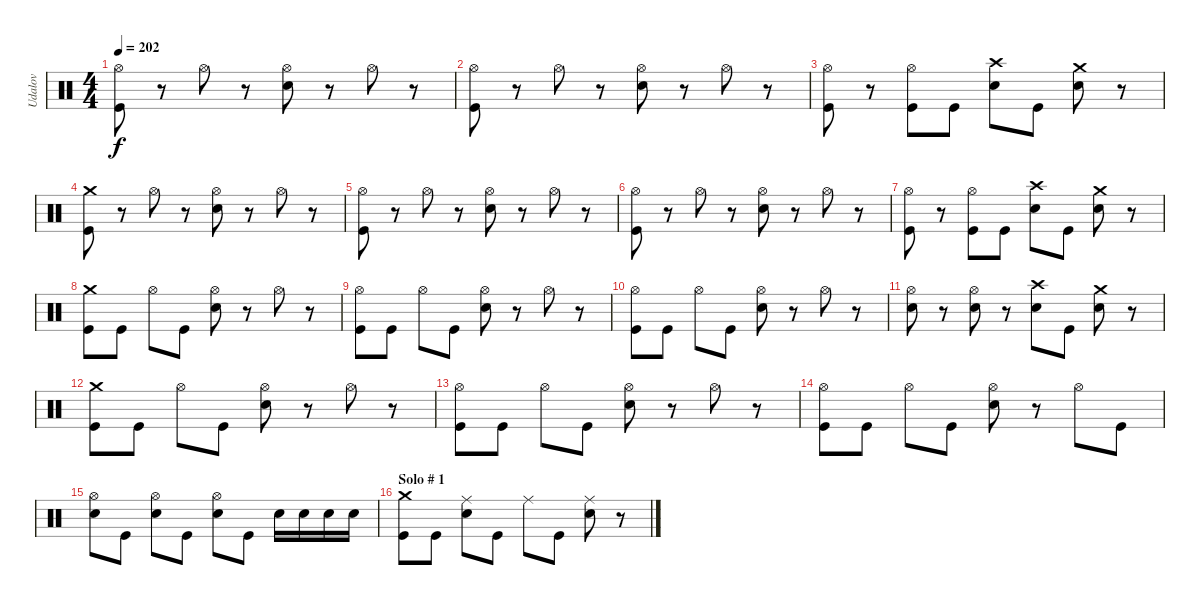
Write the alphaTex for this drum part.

\track ("Udalov" "Udalov") {instrument percussion}
\staff {score}
\articulation defaults
\ts (4 4)
\tempo 202
\clef neutral
\ks c
("Kick (hit)" "Hi-Hat (open)").8{dy f} r.8 "Hi-Hat (open)".8 r.8 ("Electric Snare (hit)" "Hi-Hat (open)").8 r.8 "Hi-Hat (open)".8 r.8 |
("Kick (hit)" "Hi-Hat (open)").8 r.8 "Hi-Hat (open)".8 r.8 ("Electric Snare (hit)" "Hi-Hat (open)").8 r.8 "Hi-Hat (open)".8 r.8 |
("Kick (hit)" "Hi-Hat (open)").8 r.8 ("Kick (hit)" "Hi-Hat (open)").8 "Kick (hit)".8 ("Electric Snare (hit)" "Crash high (hit)").8 "Kick (hit)".8 ("Electric Snare (hit)" "Crash medium (hit)").8 r.8 |
("Kick (hit)" "Crash medium (hit)").8 r.8 "Hi-Hat (open)".8 r.8 ("Electric Snare (hit)" "Hi-Hat (open)").8 r.8 "Hi-Hat (open)".8 r.8 |
("Kick (hit)" "Hi-Hat (open)").8 r.8 "Hi-Hat (open)".8 r.8 ("Electric Snare (hit)" "Hi-Hat (open)").8 r.8 "Hi-Hat (open)".8 r.8 |
("Kick (hit)" "Hi-Hat (open)").8 r.8 "Hi-Hat (open)".8 r.8 ("Electric Snare (hit)" "Hi-Hat (open)").8 r.8 "Hi-Hat (open)".8 r.8 |
("Kick (hit)" "Hi-Hat (open)").8 r.8 ("Kick (hit)" "Hi-Hat (open)").8 "Kick (hit)".8 ("Electric Snare (hit)" "Crash high (hit)").8 "Kick (hit)".8 ("Electric Snare (hit)" "Crash medium (hit)").8 r.8 |
("Kick (hit)" "Crash medium (hit)").8 "Kick (hit)".8 "Hi-Hat (open)".8 "Kick (hit)".8 ("Electric Snare (hit)" "Hi-Hat (open)").8 r.8 "Hi-Hat (open)".8 r.8 |
("Kick (hit)" "Hi-Hat (open)").8 "Kick (hit)".8 "Hi-Hat (open)".8 "Kick (hit)".8 ("Electric Snare (hit)" "Hi-Hat (open)").8 r.8 "Hi-Hat (open)".8 r.8 |
("Kick (hit)" "Hi-Hat (open)").8 "Kick (hit)".8 "Hi-Hat (open)".8 "Kick (hit)".8 ("Electric Snare (hit)" "Hi-Hat (open)").8 r.8 "Hi-Hat (open)".8 r.8 |
("Electric Snare (hit)" "Hi-Hat (open)").8 r.8 ("Electric Snare (hit)" "Hi-Hat (open)").8 r.8 ("Electric Snare (hit)" "Crash high (hit)").8 "Kick (hit)".8 ("Electric Snare (hit)" "Crash medium (hit)").8 r.8 |
("Kick (hit)" "Crash medium (hit)").8 "Kick (hit)".8 "Hi-Hat (open)".8 "Kick (hit)".8 ("Electric Snare (hit)" "Hi-Hat (open)").8 r.8 "Hi-Hat (open)".8 r.8 |
("Kick (hit)" "Hi-Hat (open)").8 "Kick (hit)".8 "Hi-Hat (open)".8 "Kick (hit)".8 ("Electric Snare (hit)" "Hi-Hat (open)").8 r.8 "Hi-Hat (open)".8 r.8 |
("Kick (hit)" "Hi-Hat (open)").8 "Kick (hit)".8 "Hi-Hat (open)".8 "Kick (hit)".8 ("Electric Snare (hit)" "Hi-Hat (open)").8 r.8 "Hi-Hat (open)".8 "Kick (hit)".8 |
("Electric Snare (hit)" "Hi-Hat (open)").8 "Kick (hit)".8 ("Electric Snare (hit)" "Hi-Hat (open)").8 "Kick (hit)".8 ("Electric Snare (hit)" "Hi-Hat (open)").8 "Kick (hit)".8 "Electric Snare (hit)".16 "Electric Snare (hit)".16 "Electric Snare (hit)".16 "Electric Snare (hit)".16 |
\section ("" "Solo # 1")
("Kick (hit)" "Crash medium (hit)").8 "Kick (hit)".8 ("Electric Snare (hit)" "Ride (middle)").8 "Kick (hit)".8 "Ride (middle)".8 "Kick (hit)".8 ("Electric Snare (hit)" "Ride (middle)").8 r.8
